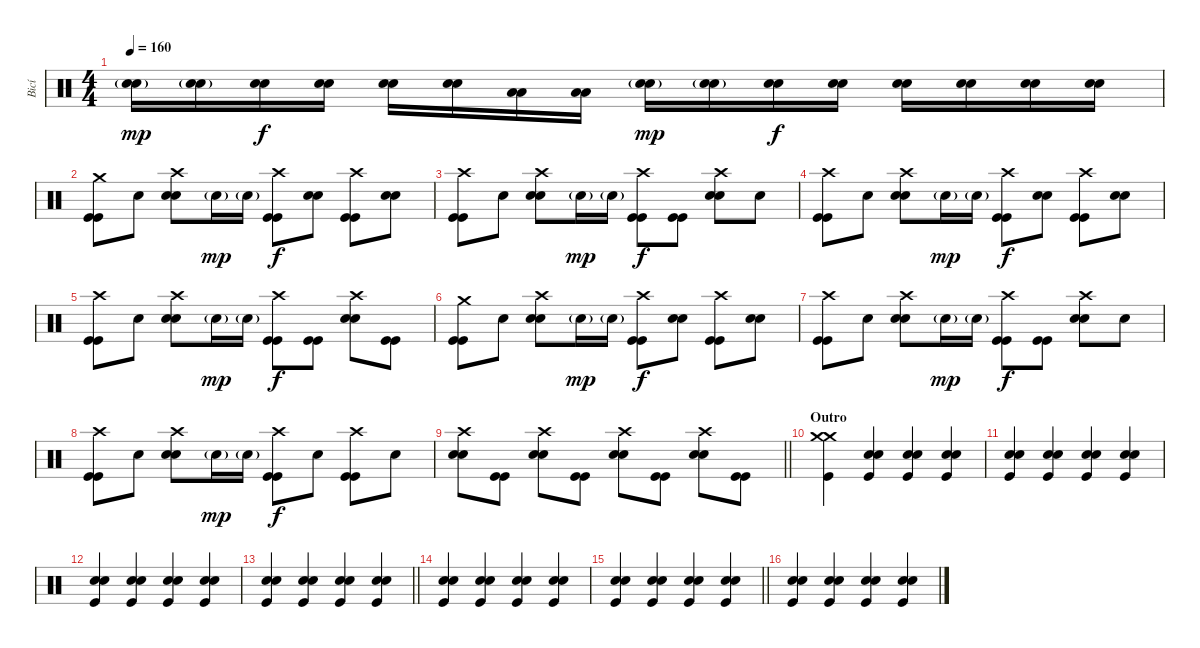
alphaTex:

\track ("Bicí" "Bicí") {instrument percussion}
\staff {score}
\articulation defaults
\ts (4 4)
\tempo 160
\clef neutral
\ks c
("Electric Snare (hit)"{g} "Electric Snare (hit)"{g}).16{dy mp} ("Electric Snare (hit)"{g} "Electric Snare (hit)"{g}).16 ("Electric Snare (hit)" "Electric Snare (hit)").16{dy f} ("Electric Snare (hit)" "Electric Snare (hit)").16 ("Electric Snare (hit)" "Electric Snare (hit)").16 ("Electric Snare (hit)" "Electric Snare (hit)").16 ("Low Tom (hit)" "Low Tom (hit)").16 ("Low Tom (hit)" "Low Tom (hit)").16 ("Electric Snare (hit)"{g} "Electric Snare (hit)"{g}).16{dy mp} ("Electric Snare (hit)"{g} "Electric Snare (hit)"{g}).16 ("Electric Snare (hit)" "Electric Snare (hit)").16{dy f} ("Electric Snare (hit)" "Electric Snare (hit)").16 ("Electric Snare (hit)" "Electric Snare (hit)").16 ("Electric Snare (hit)" "Electric Snare (hit)").16 ("Electric Snare (hit)" "Electric Snare (hit)").16 ("Electric Snare (hit)" "Electric Snare (hit)").16 |
("Crash medium (hit)" "Kick (hit)" "Kick (hit)").8 "Snare (hit)".8 ("Crash high (hit)" "Electric Snare (hit)" "Electric Snare (hit)").8 "Electric Snare (hit)"{g}.16{dy mp} "Electric Snare (hit)"{g}.16 ("Crash high (hit)" "Kick (hit)" "Kick (hit)").8{dy f} ("Electric Snare (hit)" "Electric Snare (hit)").8 ("Crash high (hit)" "Kick (hit)" "Kick (hit)").8 ("Electric Snare (hit)" "Electric Snare (hit)").8 |
("Crash high (hit)" "Kick (hit)" "Kick (hit)").8 "Snare (hit)".8 ("Crash high (hit)" "Electric Snare (hit)" "Electric Snare (hit)").8 "Electric Snare (hit)"{g}.16{dy mp} "Electric Snare (hit)"{g}.16 ("Crash high (hit)" "Kick (hit)" "Kick (hit)").8{dy f} ("Kick (hit)" "Kick (hit)").8 ("Crash high (hit)" "Electric Snare (hit)" "Electric Snare (hit)").8 "Snare (hit)".8 |
("Crash high (hit)" "Kick (hit)" "Kick (hit)").8 "Snare (hit)".8 ("Crash high (hit)" "Electric Snare (hit)" "Electric Snare (hit)").8 "Electric Snare (hit)"{g}.16{dy mp} "Electric Snare (hit)"{g}.16 ("Crash high (hit)" "Kick (hit)" "Kick (hit)").8{dy f} ("Electric Snare (hit)" "Electric Snare (hit)").8 ("Crash high (hit)" "Kick (hit)" "Kick (hit)").8 ("Electric Snare (hit)" "Electric Snare (hit)").8 |
("Crash high (hit)" "Kick (hit)" "Kick (hit)").8 "Snare (hit)".8 ("Crash high (hit)" "Electric Snare (hit)" "Electric Snare (hit)").8 "Electric Snare (hit)"{g}.16{dy mp} "Electric Snare (hit)"{g}.16 ("Crash high (hit)" "Kick (hit)" "Kick (hit)").8{dy f} ("Kick (hit)" "Kick (hit)").8 ("Crash high (hit)" "Electric Snare (hit)" "Electric Snare (hit)").8 ("Kick (hit)" "Kick (hit)").8 |
("Crash medium (hit)" "Kick (hit)" "Kick (hit)").8 "Snare (hit)".8 ("Crash high (hit)" "Electric Snare (hit)" "Electric Snare (hit)").8 "Electric Snare (hit)"{g}.16{dy mp} "Electric Snare (hit)"{g}.16 ("Crash high (hit)" "Kick (hit)" "Kick (hit)").8{dy f} ("Electric Snare (hit)" "Electric Snare (hit)").8 ("Crash high (hit)" "Kick (hit)" "Kick (hit)").8 ("Electric Snare (hit)" "Electric Snare (hit)").8 |
("Crash high (hit)" "Kick (hit)" "Kick (hit)").8 "Snare (hit)".8 ("Crash high (hit)" "Electric Snare (hit)" "Electric Snare (hit)").8 "Electric Snare (hit)"{g}.16{dy mp} "Electric Snare (hit)"{g}.16 ("Crash high (hit)" "Kick (hit)" "Kick (hit)").8{dy f} ("Kick (hit)" "Kick (hit)").8 ("Crash high (hit)" "Electric Snare (hit)" "Electric Snare (hit)").8 "Snare (hit)".8 |
("Crash high (hit)" "Kick (hit)" "Kick (hit)").8 "Snare (hit)".8 ("Crash high (hit)" "Electric Snare (hit)" "Electric Snare (hit)").8 "Electric Snare (hit)"{g}.16{dy mp} "Electric Snare (hit)"{g}.16 ("Crash high (hit)" "Kick (hit)" "Kick (hit)").8{dy f} "Snare (hit)".8 ("Crash high (hit)" "Kick (hit)" "Kick (hit)").8 "Snare (hit)".8 |
\barLineRight lightlight
("Crash high (hit)" "Electric Snare (hit)" "Electric Snare (hit)").8 ("Kick (hit)" "Kick (hit)").8 ("Crash high (hit)" "Electric Snare (hit)" "Electric Snare (hit)").8 ("Kick (hit)" "Kick (hit)").8 ("Crash high (hit)" "Electric Snare (hit)" "Electric Snare (hit)").8 ("Kick (hit)" "Kick (hit)").8 ("Crash high (hit)" "Electric Snare (hit)" "Electric Snare (hit)").8 ("Kick (hit)" "Kick (hit)").8 |
\section ("" "Outro")
("Crash medium (hit)" "Crash medium (hit)" "Kick (hit)").4 ("Hand Clap (hit)" "Hand Clap (hit)" "Kick (hit)").4 ("Hand Clap (hit)" "Hand Clap (hit)" "Kick (hit)").4 ("Hand Clap (hit)" "Hand Clap (hit)" "Kick (hit)").4 |
("Hand Clap (hit)" "Hand Clap (hit)" "Kick (hit)").4 ("Hand Clap (hit)" "Hand Clap (hit)" "Kick (hit)").4 ("Hand Clap (hit)" "Hand Clap (hit)" "Kick (hit)").4 ("Hand Clap (hit)" "Hand Clap (hit)" "Kick (hit)").4 |
("Hand Clap (hit)" "Hand Clap (hit)" "Kick (hit)").4 ("Hand Clap (hit)" "Hand Clap (hit)" "Kick (hit)").4 ("Hand Clap (hit)" "Hand Clap (hit)" "Kick (hit)").4 ("Hand Clap (hit)" "Hand Clap (hit)" "Kick (hit)").4 |
\barLineRight lightlight
("Hand Clap (hit)" "Hand Clap (hit)" "Kick (hit)").4 ("Hand Clap (hit)" "Hand Clap (hit)" "Kick (hit)").4 ("Hand Clap (hit)" "Hand Clap (hit)" "Kick (hit)").4 ("Hand Clap (hit)" "Hand Clap (hit)" "Kick (hit)").4 |
\section ("" "")
("Hand Clap (hit)" "Hand Clap (hit)" "Kick (hit)").4 ("Hand Clap (hit)" "Hand Clap (hit)" "Kick (hit)").4 ("Hand Clap (hit)" "Hand Clap (hit)" "Kick (hit)").4 ("Hand Clap (hit)" "Hand Clap (hit)" "Kick (hit)").4 |
\barLineRight lightlight
("Hand Clap (hit)" "Hand Clap (hit)" "Kick (hit)").4 ("Hand Clap (hit)" "Hand Clap (hit)" "Kick (hit)").4 ("Hand Clap (hit)" "Hand Clap (hit)" "Kick (hit)").4 ("Hand Clap (hit)" "Hand Clap (hit)" "Kick (hit)").4 |
("Hand Clap (hit)" "Hand Clap (hit)" "Kick (hit)").4 ("Hand Clap (hit)" "Hand Clap (hit)" "Kick (hit)").4 ("Hand Clap (hit)" "Hand Clap (hit)" "Kick (hit)").4 ("Hand Clap (hit)" "Hand Clap (hit)" "Kick (hit)").4
